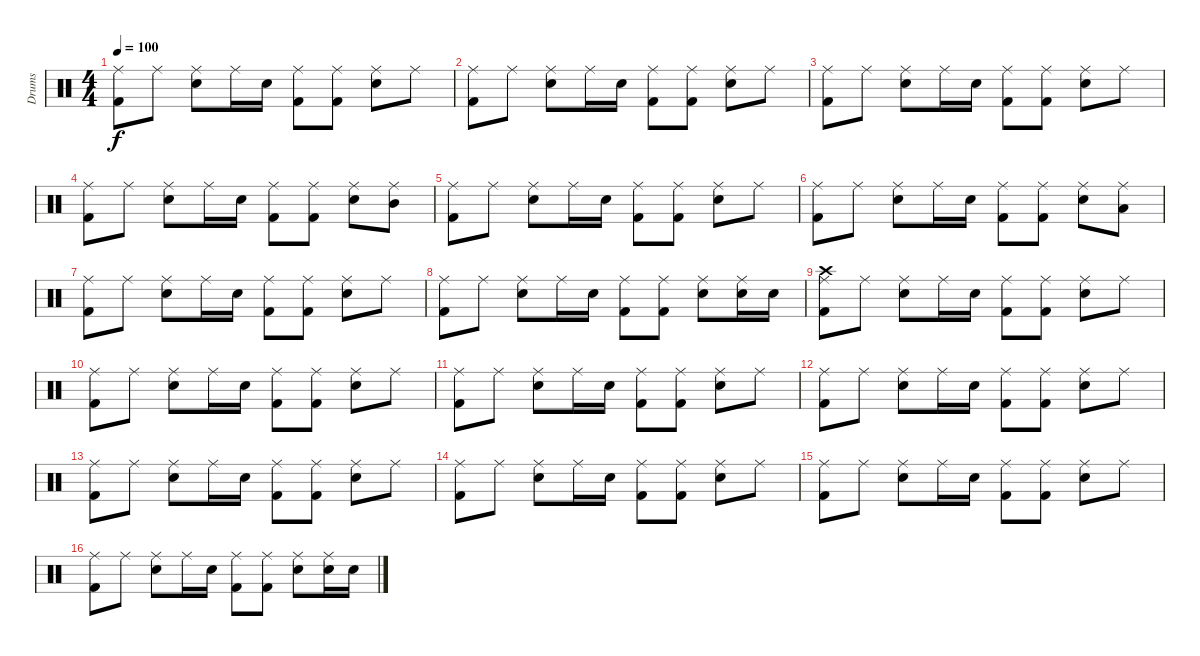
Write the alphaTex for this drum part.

\track ("Drums" "Drums") {instrument percussion}
\staff {score}
\articulation defaults
\ts (4 4)
\tempo 100
\clef neutral
\ks c
("Ride (middle)" "Kick (hit) 2").8{dy f} "Ride (middle)".8 ("Ride (middle)" "Electric Snare (hit)").8 "Ride (middle)".16 "Electric Snare (hit)".16 ("Ride (middle)" "Kick (hit) 2").8 ("Ride (middle)" "Kick (hit) 2").8 ("Ride (middle)" "Electric Snare (hit)").8 "Ride (middle)".8 |
("Ride (middle)" "Kick (hit) 2").8 "Ride (middle)".8 ("Ride (middle)" "Electric Snare (hit)").8 "Ride (middle)".16 "Electric Snare (hit)".16 ("Ride (middle)" "Kick (hit) 2").8 ("Ride (middle)" "Kick (hit) 2").8 ("Ride (middle)" "Electric Snare (hit)").8 "Ride (middle)".8 |
("Ride (middle)" "Kick (hit) 2").8 "Ride (middle)".8 ("Ride (middle)" "Electric Snare (hit)").8 "Ride (middle)".16 "Electric Snare (hit)".16 ("Ride (middle)" "Kick (hit) 2").8 ("Ride (middle)" "Kick (hit) 2").8 ("Ride (middle)" "Electric Snare (hit)").8 "Ride (middle)".8 |
("Ride (middle)" "Kick (hit) 2").8 "Ride (middle)".8 ("Ride (middle)" "Electric Snare (hit)").8 "Ride (middle)".16 "Electric Snare (hit)".16 ("Ride (middle)" "Kick (hit) 2").8 ("Ride (middle)" "Kick (hit) 2").8 ("Ride (middle)" "Electric Snare (hit)").8 ("Ride (middle)" "Mid Tom (hit)").8 |
("Ride (middle)" "Kick (hit) 2").8 "Ride (middle)".8 ("Ride (middle)" "Electric Snare (hit)").8 "Ride (middle)".16 "Electric Snare (hit)".16 ("Ride (middle)" "Kick (hit) 2").8 ("Ride (middle)" "Kick (hit) 2").8 ("Ride (middle)" "Electric Snare (hit)").8 "Ride (middle)".8 |
("Ride (middle)" "Kick (hit) 2").8 "Ride (middle)".8 ("Ride (middle)" "Electric Snare (hit)").8 "Ride (middle)".16 "Electric Snare (hit)".16 ("Ride (middle)" "Kick (hit) 2").8 ("Ride (middle)" "Kick (hit) 2").8 ("Ride (middle)" "Electric Snare (hit)").8 ("Ride (middle)" "Low Tom (hit)").8 |
("Ride (middle)" "Kick (hit) 2").8 "Ride (middle)".8 ("Ride (middle)" "Electric Snare (hit)").8 "Ride (middle)".16 "Electric Snare (hit)".16 ("Ride (middle)" "Kick (hit) 2").8 ("Ride (middle)" "Kick (hit) 2").8 ("Ride (middle)" "Electric Snare (hit)").8 "Ride (middle)".8 |
("Ride (middle)" "Kick (hit) 2").8 "Ride (middle)".8 ("Ride (middle)" "Electric Snare (hit)").8 "Ride (middle)".16 "Electric Snare (hit)".16 ("Ride (middle)" "Kick (hit) 2").8 ("Ride (middle)" "Kick (hit) 2").8 ("Ride (middle)" "Electric Snare (hit)").8 ("Ride (middle)" "Electric Snare (hit)").16 "Electric Snare (hit)".16 |
("Crash high (hit)" "Ride (middle)" "Kick (hit) 2").8 "Ride (middle)".8 ("Ride (middle)" "Electric Snare (hit)").8 "Ride (middle)".16 "Electric Snare (hit)".16 ("Ride (middle)" "Kick (hit) 2").8 ("Ride (middle)" "Kick (hit) 2").8 ("Ride (middle)" "Electric Snare (hit)").8 "Ride (middle)".8 |
("Ride (middle)" "Kick (hit) 2").8 "Ride (middle)".8 ("Ride (middle)" "Electric Snare (hit)").8 "Ride (middle)".16 "Electric Snare (hit)".16 ("Ride (middle)" "Kick (hit) 2").8 ("Ride (middle)" "Kick (hit) 2").8 ("Ride (middle)" "Electric Snare (hit)").8 "Ride (middle)".8 |
("Ride (middle)" "Kick (hit) 2").8 "Ride (middle)".8 ("Ride (middle)" "Electric Snare (hit)").8 "Ride (middle)".16 "Electric Snare (hit)".16 ("Ride (middle)" "Kick (hit) 2").8 ("Ride (middle)" "Kick (hit) 2").8 ("Ride (middle)" "Electric Snare (hit)").8 "Ride (middle)".8 |
("Ride (middle)" "Kick (hit) 2").8 "Ride (middle)".8 ("Ride (middle)" "Electric Snare (hit)").8 "Ride (middle)".16 "Electric Snare (hit)".16 ("Ride (middle)" "Kick (hit) 2").8 ("Ride (middle)" "Kick (hit) 2").8 ("Ride (middle)" "Electric Snare (hit)").8 "Ride (middle)".8 |
("Ride (middle)" "Kick (hit) 2").8 "Ride (middle)".8 ("Ride (middle)" "Electric Snare (hit)").8 "Ride (middle)".16 "Electric Snare (hit)".16 ("Ride (middle)" "Kick (hit) 2").8 ("Ride (middle)" "Kick (hit) 2").8 ("Ride (middle)" "Electric Snare (hit)").8 "Ride (middle)".8 |
("Ride (middle)" "Kick (hit) 2").8 "Ride (middle)".8 ("Ride (middle)" "Electric Snare (hit)").8 "Ride (middle)".16 "Electric Snare (hit)".16 ("Ride (middle)" "Kick (hit) 2").8 ("Ride (middle)" "Kick (hit) 2").8 ("Ride (middle)" "Electric Snare (hit)").8 "Ride (middle)".8 |
("Ride (middle)" "Kick (hit) 2").8 "Ride (middle)".8 ("Ride (middle)" "Electric Snare (hit)").8 "Ride (middle)".16 "Electric Snare (hit)".16 ("Ride (middle)" "Kick (hit) 2").8 ("Ride (middle)" "Kick (hit) 2").8 ("Ride (middle)" "Electric Snare (hit)").8 "Ride (middle)".8 |
("Ride (middle)" "Kick (hit) 2").8 "Ride (middle)".8 ("Ride (middle)" "Electric Snare (hit)").8 "Ride (middle)".16 "Electric Snare (hit)".16 ("Ride (middle)" "Kick (hit) 2").8 ("Ride (middle)" "Kick (hit) 2").8 ("Ride (middle)" "Electric Snare (hit)").8 ("Ride (middle)" "Electric Snare (hit)").16 "Electric Snare (hit)".16
